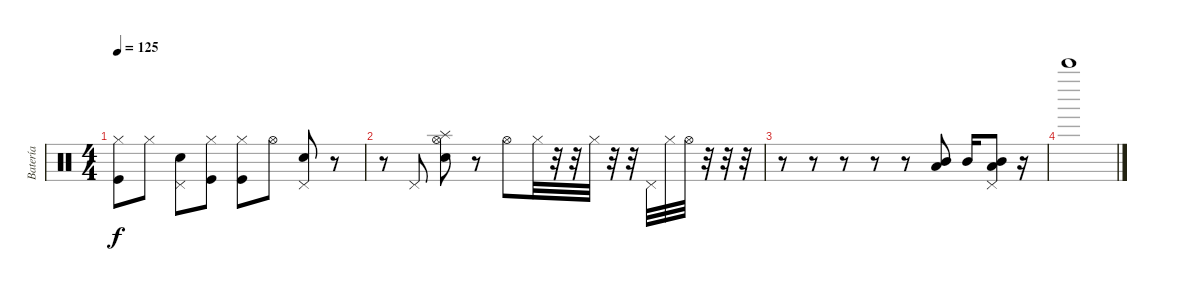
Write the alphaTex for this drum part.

\track ("Batería" "Batería") {instrument percussion}
\staff {score}
\articulation defaults
\ts (4 4)
\tempo 125
\clef neutral
\ks c
("Hi-Hat (closed)" "Kick (hit)").8{dy f} "Hi-Hat (closed)".8 ("Pedal Hi-Hat (hit)" "Snare (hit) 2").8 ("Hi-Hat (closed)" "Kick (hit)").8 ("Hi-Hat (closed)" "Kick (hit)").8 "Hi-Hat (open)".8 ("Pedal Hi-Hat (hit)" "Snare (hit) 2").8 r.8 |
r.8 "Pedal Hi-Hat (hit)".8 ("Splash (hit)" "Hi-Hat (open)" "Snare (hit) 2").8 r.8 "Hi-Hat (open)".8 "Hi-Hat (closed)".32 r.32 r.32 "Hi-Hat (closed)".32 r.32 r.32 "Pedal Hi-Hat (hit)".32 "Hi-Hat (closed)".32 "Hi-Hat (open)".32 r.32 r.32 r.32 |
r.8 r.8 r.8 r.8 r.8 ("Mid Tom (hit)" "Low Floor Tom (hit)").8 "Mid Tom (hit)".16 ("Pedal Hi-Hat (hit)" "Mid Tom (hit)" "Low Floor Tom (hit)").8 r.16 |
"Bell Tree (hit)".1
